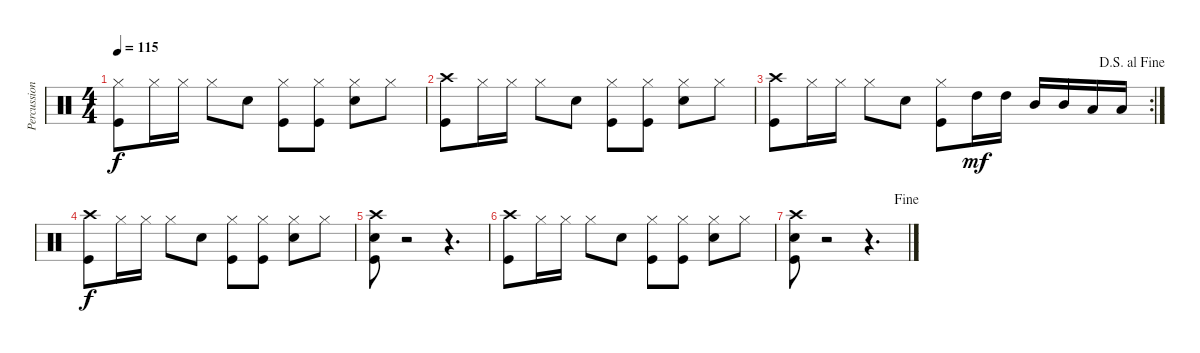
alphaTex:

\track ("Percussion" "Percussion") {instrument percussion}
\staff {score}
\articulation defaults
\ts (4 4)
\tempo 115
\clef neutral
\ks c
("Hi-Hat (closed)" "Kick (hit)").8{dy f} "Hi-Hat (closed)".16 "Hi-Hat (closed)".16 "Hi-Hat (closed)".8 "Electric Snare (hit)".8 ("Hi-Hat (closed)" "Kick (hit)").8 ("Hi-Hat (closed)" "Kick (hit)").8 ("Hi-Hat (closed)" "Electric Snare (hit)").8 "Hi-Hat (closed)".8 |
("Crash high (hit)" "Kick (hit)").8 "Hi-Hat (closed)".16 "Hi-Hat (closed)".16 "Hi-Hat (closed)".8 "Electric Snare (hit)".8 ("Hi-Hat (closed)" "Kick (hit)").8 ("Hi-Hat (closed)" "Kick (hit)").8 ("Hi-Hat (closed)" "Electric Snare (hit)").8 "Hi-Hat (closed)".8 |
\rc 2
\jump dalsegnoalfine
("Crash high (hit)" "Kick (hit)").8 "Hi-Hat (closed)".16 "Hi-Hat (closed)".16 "Hi-Hat (closed)".8 "Electric Snare (hit)".8 ("Hi-Hat (closed)" "Kick (hit)").8 "High Tom (hit)".16{dy mf} "High Tom (hit)".16 "Mid Tom (hit)".16 "Mid Tom (hit)".16 "Low Tom (hit)".16 "Low Tom (hit)".16 |
("Crash high (hit)" "Kick (hit)").8{dy f} "Hi-Hat (closed)".16 "Hi-Hat (closed)".16 "Hi-Hat (closed)".8 "Electric Snare (hit)".8 ("Hi-Hat (closed)" "Kick (hit)").8 ("Hi-Hat (closed)" "Kick (hit)").8 ("Hi-Hat (closed)" "Electric Snare (hit)").8 "Hi-Hat (closed)".8 |
("Crash high (hit)" "Electric Snare (hit)" "Kick (hit)").8 r.2 r.4{d} |
("Crash high (hit)" "Kick (hit)").8 "Hi-Hat (closed)".16 "Hi-Hat (closed)".16 "Hi-Hat (closed)".8 "Electric Snare (hit)".8 ("Hi-Hat (closed)" "Kick (hit)").8 ("Hi-Hat (closed)" "Kick (hit)").8 ("Hi-Hat (closed)" "Electric Snare (hit)").8 "Hi-Hat (closed)".8 |
\jump fine
("Crash high (hit)" "Electric Snare (hit)" "Kick (hit)").8 r.2 r.4{d}
